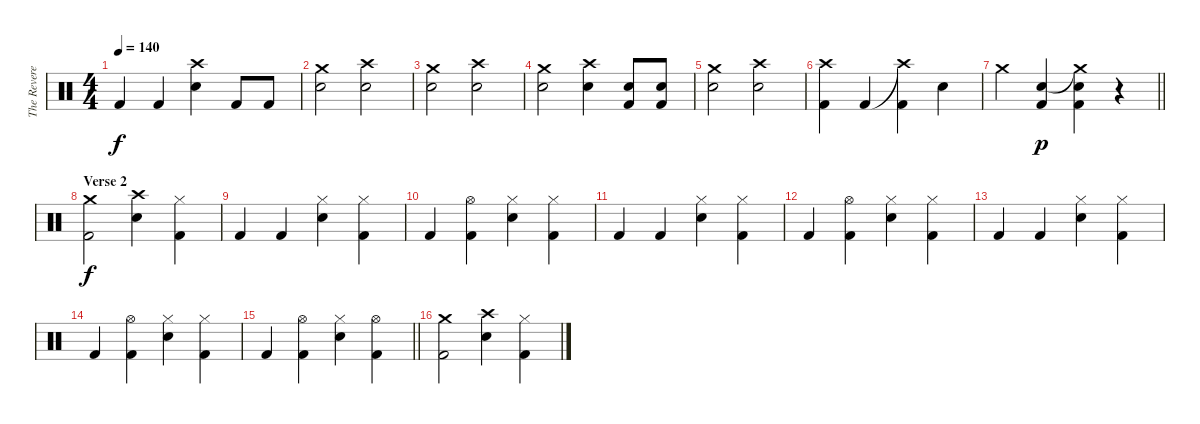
\track ("The Reverend" "The Revere") {instrument percussion}
\staff {score}
\articulation defaults
\ts (4 4)
\tempo 140
\clef neutral
\ks c "Kick (hit) 2".4{dy f} "Kick (hit) 2".4
("Crash high (hit)" "Snare (hit) 2").4 "Kick (hit) 2".8 "Kick (hit) 2".8 |
("Crash medium (hit)" "Snare (hit) 2").2 ("Crash high (hit)" "Snare (hit) 2").2 |
("Crash medium (hit)" "Snare (hit) 2").2 ("Crash high (hit)" "Snare (hit) 2").2 |
("Crash medium (hit)" "Snare (hit) 2").2 ("Crash high (hit)" "Snare (hit) 2").4 ("Snare (hit) 2" "Kick (hit) 2").8 ("Snare (hit) 2" "Kick (hit) 2").8 |
("Crash medium (hit)" "Snare (hit) 2").2 ("Crash high (hit)" "Snare (hit) 2").2 |
("Crash high (hit)" "Kick (hit) 2").4 "Kick (hit) 2".4 ("Crash high (hit)"{t} "Kick (hit) 2").4 "Snare (hit) 2".4 |
\barLineRight lightlight "Crash medium (hit)".4
("Snare (hit) 2" "Kick (hit) 2").4{dy p} ("Crash medium (hit)"{t} "Snare (hit) 2" "Kick (hit) 2").4 r.4 |
\section ("" "Verse 2")
("Crash medium (hit)" "Kick (hit) 2").2{dy f} ("Crash high (hit)" "Snare (hit) 2").4 ("Hi-Hat (closed)" "Kick (hit) 2").4 |
"Kick (hit) 2".4 "Kick (hit) 2".4 ("Hi-Hat (closed)" "Snare (hit) 2").4 ("Hi-Hat (closed)" "Kick (hit) 2").4 |
"Kick (hit) 2".4 ("Hi-Hat (open)" "Kick (hit) 2").4 ("Hi-Hat (closed)" "Snare (hit) 2").4 ("Hi-Hat (closed)" "Kick (hit) 2").4 |
"Kick (hit) 2".4 "Kick (hit) 2".4 ("Hi-Hat (closed)" "Snare (hit) 2").4 ("Hi-Hat (closed)" "Kick (hit) 2").4 |
"Kick (hit) 2".4 ("Hi-Hat (open)" "Kick (hit) 2").4 ("Hi-Hat (closed)" "Snare (hit) 2").4 ("Hi-Hat (closed)" "Kick (hit) 2").4 |
"Kick (hit) 2".4 "Kick (hit) 2".4 ("Hi-Hat (closed)" "Snare (hit) 2").4 ("Hi-Hat (closed)" "Kick (hit) 2").4 |
"Kick (hit) 2".4 ("Hi-Hat (open)" "Kick (hit) 2").4 ("Hi-Hat (closed)" "Snare (hit) 2").4 ("Hi-Hat (closed)" "Kick (hit) 2").4 |
\barLineRight lightlight "Kick (hit) 2".4
("Hi-Hat (open)" "Kick (hit) 2").4 ("Hi-Hat (closed)" "Snare (hit) 2").4 ("Hi-Hat (open)" "Kick (hit) 2").4 |
("Crash medium (hit)" "Kick (hit) 2").2 ("Crash high (hit)" "Snare (hit) 2").4 ("Hi-Hat (closed)" "Kick (hit) 2").4
